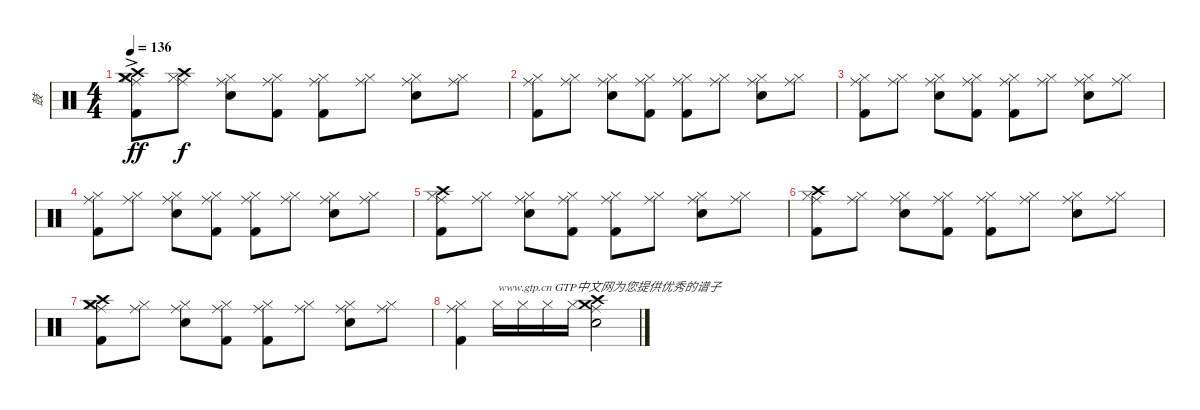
\track ("鼓" "鼓") {instrument percussion}
\staff {score}
\articulation defaults
\ts (4 4)
\tempo 136
\clef neutral
\ks c
("Ride (middle)"{ac} "Hi-Hat (closed)"{ac} "Crash high (hit)"{ac} "Crash medium (hit)"{ac} "Kick (hit) 2"{ac}).8{dy ff} ("Ride (middle)" "Hi-Hat (closed)" "Crash high (hit)").8{dy f} ("Ride (middle)" "Hi-Hat (closed)" "Electric Snare (hit)").8 ("Ride (middle)" "Hi-Hat (closed)" "Kick (hit) 2").8 ("Ride (middle)" "Hi-Hat (closed)" "Kick (hit) 2").8 ("Ride (middle)" "Hi-Hat (closed)").8 ("Ride (middle)" "Hi-Hat (closed)" "Electric Snare (hit)").8 ("Ride (middle)" "Hi-Hat (closed)").8 |
("Ride (middle)" "Hi-Hat (closed)" "Kick (hit) 2").8 ("Ride (middle)" "Hi-Hat (closed)").8 ("Ride (middle)" "Hi-Hat (closed)" "Electric Snare (hit)").8 ("Ride (middle)" "Hi-Hat (closed)" "Kick (hit) 2").8 ("Ride (middle)" "Hi-Hat (closed)" "Kick (hit) 2").8 ("Ride (middle)" "Hi-Hat (closed)").8 ("Ride (middle)" "Hi-Hat (closed)" "Electric Snare (hit)").8 ("Ride (middle)" "Hi-Hat (closed)").8 |
("Ride (middle)" "Hi-Hat (closed)" "Kick (hit) 2").8 ("Ride (middle)" "Hi-Hat (closed)").8 ("Ride (middle)" "Hi-Hat (closed)" "Electric Snare (hit)").8 ("Ride (middle)" "Hi-Hat (closed)" "Kick (hit) 2").8 ("Ride (middle)" "Hi-Hat (closed)" "Kick (hit) 2").8 ("Ride (middle)" "Hi-Hat (closed)").8 ("Ride (middle)" "Hi-Hat (closed)" "Electric Snare (hit)").8 ("Ride (middle)" "Hi-Hat (closed)").8 |
("Ride (middle)" "Hi-Hat (closed)" "Kick (hit) 2").8 ("Ride (middle)" "Hi-Hat (closed)").8 ("Ride (middle)" "Hi-Hat (closed)" "Electric Snare (hit)").8 ("Ride (middle)" "Hi-Hat (closed)" "Kick (hit) 2").8 ("Ride (middle)" "Hi-Hat (closed)" "Kick (hit) 2").8 ("Ride (middle)" "Hi-Hat (closed)").8 ("Ride (middle)" "Hi-Hat (closed)" "Electric Snare (hit)").8 ("Ride (middle)" "Hi-Hat (closed)").8 |
("Ride (middle)" "Hi-Hat (closed)" "Crash high (hit)" "Kick (hit) 2").8 ("Ride (middle)" "Hi-Hat (closed)").8 ("Ride (middle)" "Hi-Hat (closed)" "Electric Snare (hit)").8 ("Ride (middle)" "Hi-Hat (closed)" "Kick (hit) 2").8 ("Ride (middle)" "Hi-Hat (closed)" "Kick (hit) 2").8 ("Ride (middle)" "Hi-Hat (closed)").8 ("Ride (middle)" "Hi-Hat (closed)" "Electric Snare (hit)").8 ("Ride (middle)" "Hi-Hat (closed)").8 |
("Ride (middle)" "Hi-Hat (closed)" "Crash high (hit)" "Kick (hit) 2").8 ("Ride (middle)" "Hi-Hat (closed)").8 ("Ride (middle)" "Hi-Hat (closed)" "Electric Snare (hit)").8 ("Ride (middle)" "Hi-Hat (closed)" "Kick (hit) 2").8 ("Ride (middle)" "Hi-Hat (closed)" "Kick (hit) 2").8 ("Ride (middle)" "Hi-Hat (closed)").8 ("Ride (middle)" "Hi-Hat (closed)" "Electric Snare (hit)").8 ("Ride (middle)" "Hi-Hat (closed)").8 |
("Ride (middle)" "Hi-Hat (closed)" "Crash medium (hit)" "Crash high (hit)" "Kick (hit) 2").8 ("Ride (middle)" "Hi-Hat (closed)").8 ("Ride (middle)" "Hi-Hat (closed)" "Electric Snare (hit)").8 ("Ride (middle)" "Hi-Hat (closed)" "Kick (hit) 2").8 ("Ride (middle)" "Hi-Hat (closed)" "Kick (hit) 2").8 ("Ride (middle)" "Hi-Hat (closed)").8 ("Ride (middle)" "Hi-Hat (closed)" "Electric Snare (hit)").8 ("Ride (middle)" "Hi-Hat (closed)").8 |
("Ride (middle)" "Hi-Hat (closed)" "Kick (hit) 2").4 "Hi-Hat (closed)".16{txt "www.gtp.cn GTP中文网为您提供优秀的谱子"} "Hi-Hat (closed)".16 "Hi-Hat (closed)".16 "Hi-Hat (closed)".16 ("Ride (middle)" "Electric Snare (hit)" "Crash medium (hit)" "Crash high (hit)").2
